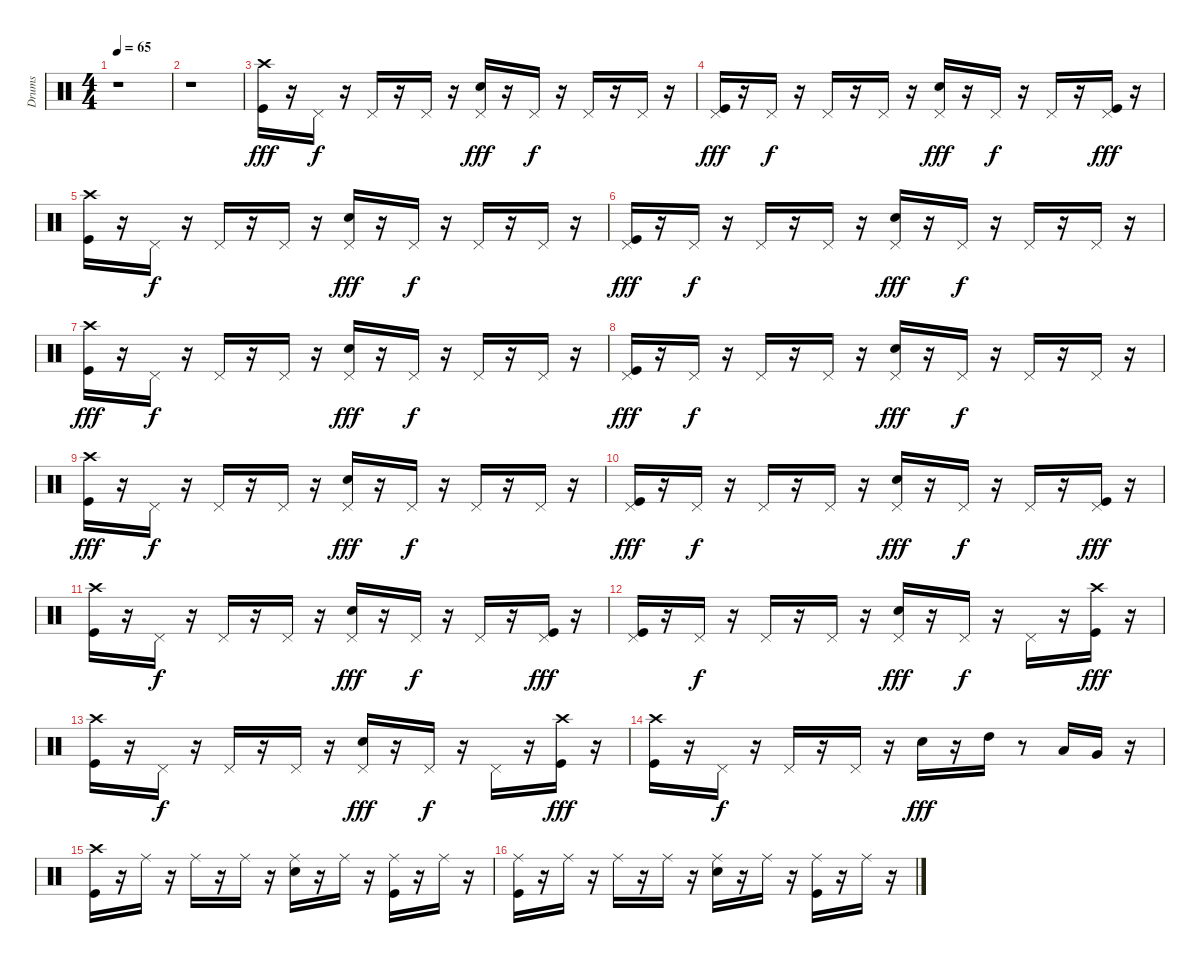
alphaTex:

\track ("Drums" "Drums") {instrument percussion}
\staff {score}
\articulation defaults
\ts (4 4)
\tempo 65
\clef neutral
\ks c
r.1{dy fff} |
r.1 |
("Kick (hit)" "Crash high (hit)").16 r.16 "Pedal Hi-Hat (hit)".16{dy f} r.16 "Pedal Hi-Hat (hit)".16 r.16 "Pedal Hi-Hat (hit)".16 r.16 ("Snare (hit) 2" "Pedal Hi-Hat (hit)").16{dy fff} r.16 "Pedal Hi-Hat (hit)".16{dy f} r.16 "Pedal Hi-Hat (hit)".16 r.16 "Pedal Hi-Hat (hit)".16 r.16 |
("Pedal Hi-Hat (hit)" "Kick (hit)").16{dy fff} r.16 "Pedal Hi-Hat (hit)".16{dy f} r.16 "Pedal Hi-Hat (hit)".16 r.16 "Pedal Hi-Hat (hit)".16 r.16 ("Pedal Hi-Hat (hit)" "Snare (hit) 2").16{dy fff} r.16 "Pedal Hi-Hat (hit)".16{dy f} r.16 "Pedal Hi-Hat (hit)".16 r.16 ("Kick (hit)" "Pedal Hi-Hat (hit)").16{dy fff} r.16 |
("Crash high (hit)" "Kick (hit)").16 r.16 "Pedal Hi-Hat (hit)".16{dy f} r.16 "Pedal Hi-Hat (hit)".16 r.16 "Pedal Hi-Hat (hit)".16 r.16 ("Pedal Hi-Hat (hit)" "Snare (hit) 2").16{dy fff} r.16 "Pedal Hi-Hat (hit)".16{dy f} r.16 "Pedal Hi-Hat (hit)".16 r.16 "Pedal Hi-Hat (hit)".16 r.16 |
("Kick (hit)" "Pedal Hi-Hat (hit)").16{dy fff} r.16 "Pedal Hi-Hat (hit)".16{dy f} r.16 "Pedal Hi-Hat (hit)".16 r.16 "Pedal Hi-Hat (hit)".16 r.16 ("Snare (hit) 2" "Pedal Hi-Hat (hit)").16{dy fff} r.16 "Pedal Hi-Hat (hit)".16{dy f} r.16 "Pedal Hi-Hat (hit)".16 r.16 "Pedal Hi-Hat (hit)".16 r.16 |
("Kick (hit)" "Crash high (hit)").16{dy fff} r.16 "Pedal Hi-Hat (hit)".16{dy f} r.16 "Pedal Hi-Hat (hit)".16 r.16 "Pedal Hi-Hat (hit)".16 r.16 ("Snare (hit) 2" "Pedal Hi-Hat (hit)").16{dy fff} r.16 "Pedal Hi-Hat (hit)".16{dy f} r.16 "Pedal Hi-Hat (hit)".16 r.16 "Pedal Hi-Hat (hit)".16 r.16 |
("Pedal Hi-Hat (hit)" "Kick (hit)").16{dy fff} r.16 "Pedal Hi-Hat (hit)".16{dy f} r.16 "Pedal Hi-Hat (hit)".16 r.16 "Pedal Hi-Hat (hit)".16 r.16 ("Pedal Hi-Hat (hit)" "Snare (hit) 2").16{dy fff} r.16 "Pedal Hi-Hat (hit)".16{dy f} r.16 "Pedal Hi-Hat (hit)".16 r.16 "Pedal Hi-Hat (hit)".16 r.16 |
("Kick (hit)" "Crash high (hit)").16{dy fff} r.16 "Pedal Hi-Hat (hit)".16{dy f} r.16 "Pedal Hi-Hat (hit)".16 r.16 "Pedal Hi-Hat (hit)".16 r.16 ("Snare (hit) 2" "Pedal Hi-Hat (hit)").16{dy fff} r.16 "Pedal Hi-Hat (hit)".16{dy f} r.16 "Pedal Hi-Hat (hit)".16 r.16 "Pedal Hi-Hat (hit)".16 r.16 |
("Pedal Hi-Hat (hit)" "Kick (hit)").16{dy fff} r.16 "Pedal Hi-Hat (hit)".16{dy f} r.16 "Pedal Hi-Hat (hit)".16 r.16 "Pedal Hi-Hat (hit)".16 r.16 ("Pedal Hi-Hat (hit)" "Snare (hit) 2").16{dy fff} r.16 "Pedal Hi-Hat (hit)".16{dy f} r.16 "Pedal Hi-Hat (hit)".16 r.16 ("Kick (hit)" "Pedal Hi-Hat (hit)").16{dy fff} r.16 |
("Crash high (hit)" "Kick (hit)").16 r.16 "Pedal Hi-Hat (hit)".16{dy f} r.16 "Pedal Hi-Hat (hit)".16 r.16 "Pedal Hi-Hat (hit)".16 r.16 ("Pedal Hi-Hat (hit)" "Snare (hit) 2").16{dy fff} r.16 "Pedal Hi-Hat (hit)".16{dy f} r.16 "Pedal Hi-Hat (hit)".16 r.16 ("Kick (hit)" "Pedal Hi-Hat (hit)").16{dy fff} r.16 |
("Kick (hit)" "Pedal Hi-Hat (hit)").16 r.16 "Pedal Hi-Hat (hit)".16{dy f} r.16 "Pedal Hi-Hat (hit)".16 r.16 "Pedal Hi-Hat (hit)".16 r.16 ("Snare (hit) 2" "Pedal Hi-Hat (hit)").16{dy fff} r.16 "Pedal Hi-Hat (hit)".16{dy f} r.16 "Pedal Hi-Hat (hit)".16 r.16 ("Crash high (hit)" "Kick (hit)").16{dy fff} r.16 |
("Kick (hit)" "Crash high (hit)").16 r.16 "Pedal Hi-Hat (hit)".16{dy f} r.16 "Pedal Hi-Hat (hit)".16 r.16 "Pedal Hi-Hat (hit)".16 r.16 ("Snare (hit) 2" "Pedal Hi-Hat (hit)").16{dy fff} r.16 "Pedal Hi-Hat (hit)".16{dy f} r.16 "Pedal Hi-Hat (hit)".16 r.16 ("Crash high (hit)" "Kick (hit)").16{dy fff} r.16 |
("Crash high (hit)" "Kick (hit)").16 r.16 "Pedal Hi-Hat (hit)".16{dy f} r.16 "Pedal Hi-Hat (hit)".16 r.16 "Pedal Hi-Hat (hit)".16 r.16 "Snare (hit) 2".16{dy fff} r.16 "High Tom (hit)".16 r.8 "Low Tom (hit)".16 "Very Low Tom (hit)".16 r.16 |
("Crash high (hit)" "Kick (hit)").16 r.16 "Ride (middle)".16 r.16 "Ride (middle)".16 r.16 "Ride (middle)".16 r.16 ("Ride (middle)" "Snare (hit) 2").16 r.16 "Ride (middle)".16 r.16 ("Ride (middle)" "Kick (hit)").16 r.16 "Ride (middle)".16 r.16 |
("Ride (middle)" "Kick (hit)").16 r.16 "Ride (middle)".16 r.16 "Ride (middle)".16 r.16 "Ride (middle)".16 r.16 ("Snare (hit) 2" "Ride (middle)").16 r.16 "Ride (middle)".16 r.16 ("Ride (middle)" "Kick (hit)").16 r.16 "Ride (middle)".16 r.16
